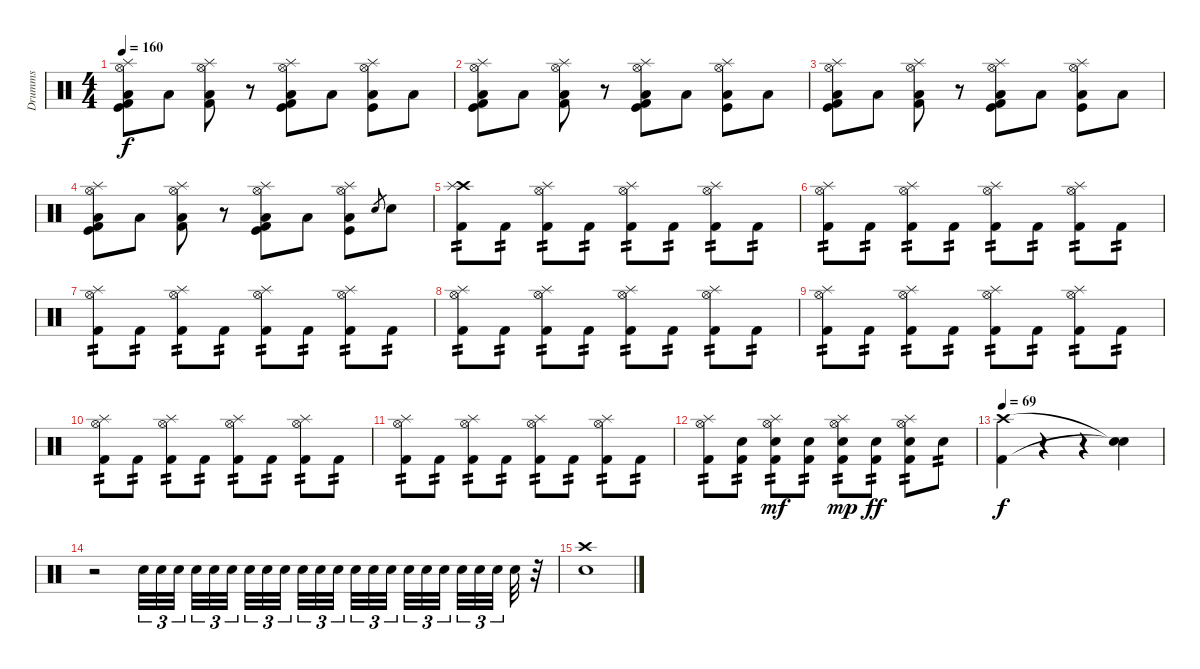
\track ("Drumms" "Drumms") {instrument percussion}
\staff {score}
\articulation defaults
\ts (4 4)
\tempo 160
\clef neutral
\ks c
("Hi-Hat (open)" "Splash (hit)" "Kick (hit) 2" "Low Floor Tom (hit)" "Kick (hit)").8{dy f} "Low Floor Tom (hit)".8 ("Hi-Hat (open)" "Splash (hit)" "Kick (hit) 2" "Low Floor Tom (hit)").8 r.8 ("Hi-Hat (open)" "Splash (hit)" "Kick (hit) 2" "Low Floor Tom (hit)" "Kick (hit)").8 "Low Floor Tom (hit)".8 ("Hi-Hat (open)" "Splash (hit)" "Low Floor Tom (hit)" "Kick (hit)").8 "Low Floor Tom (hit)".8 |
("Hi-Hat (open)" "Splash (hit)" "Kick (hit) 2" "Low Floor Tom (hit)" "Kick (hit)").8 "Low Floor Tom (hit)".8 ("Hi-Hat (open)" "Splash (hit)" "Kick (hit) 2" "Low Floor Tom (hit)").8 r.8 ("Hi-Hat (open)" "Splash (hit)" "Kick (hit) 2" "Low Floor Tom (hit)" "Kick (hit)").8 "Low Floor Tom (hit)".8 ("Hi-Hat (open)" "Splash (hit)" "Low Floor Tom (hit)" "Kick (hit)").8 "Low Floor Tom (hit)".8 |
("Hi-Hat (open)" "Splash (hit)" "Kick (hit) 2" "Low Floor Tom (hit)" "Kick (hit)").8 "Low Floor Tom (hit)".8 ("Hi-Hat (open)" "Splash (hit)" "Kick (hit) 2" "Low Floor Tom (hit)").8 r.8 ("Hi-Hat (open)" "Splash (hit)" "Kick (hit) 2" "Low Floor Tom (hit)" "Kick (hit)").8 "Low Floor Tom (hit)".8 ("Hi-Hat (open)" "Splash (hit)" "Low Floor Tom (hit)" "Kick (hit)").8 "Low Floor Tom (hit)".8 |
("Hi-Hat (open)" "Splash (hit)" "Kick (hit) 2" "Low Floor Tom (hit)" "Kick (hit)").8 "Low Floor Tom (hit)".8 ("Hi-Hat (open)" "Splash (hit)" "Kick (hit) 2" "Low Floor Tom (hit)").8 r.8 ("Hi-Hat (open)" "Splash (hit)" "Kick (hit) 2" "Low Floor Tom (hit)" "Kick (hit)").8 "Low Floor Tom (hit)".8 ("Hi-Hat (open)" "Splash (hit)" "Low Floor Tom (hit)" "Kick (hit)").8 "Snare (hit) 2".8{gr} "Snare (hit) 2".8 |
("Crash high (hit)" "Splash (hit)" "Kick (hit) 2").8{tp 2} "Kick (hit) 2".8{tp 2} ("Hi-Hat (open)" "Splash (hit)" "Kick (hit) 2").8{tp 2} "Kick (hit) 2".8{tp 2} ("Hi-Hat (open)" "Splash (hit)" "Kick (hit) 2").8{tp 2} "Kick (hit) 2".8{tp 2} ("Hi-Hat (open)" "Splash (hit)" "Kick (hit) 2").8{tp 2} "Kick (hit) 2".8{tp 2} |
("Hi-Hat (open)" "Splash (hit)" "Kick (hit) 2").8{tp 2} "Kick (hit) 2".8{tp 2} ("Hi-Hat (open)" "Splash (hit)" "Kick (hit) 2").8{tp 2} "Kick (hit) 2".8{tp 2} ("Hi-Hat (open)" "Splash (hit)" "Kick (hit) 2").8{tp 2} "Kick (hit) 2".8{tp 2} ("Hi-Hat (open)" "Splash (hit)" "Kick (hit) 2").8{tp 2} "Kick (hit) 2".8{tp 2} |
("Hi-Hat (open)" "Splash (hit)" "Kick (hit) 2").8{tp 2} "Kick (hit) 2".8{tp 2} ("Hi-Hat (open)" "Splash (hit)" "Kick (hit) 2").8{tp 2} "Kick (hit) 2".8{tp 2} ("Hi-Hat (open)" "Splash (hit)" "Kick (hit) 2").8{tp 2} "Kick (hit) 2".8{tp 2} ("Hi-Hat (open)" "Splash (hit)" "Kick (hit) 2").8{tp 2} "Kick (hit) 2".8{tp 2} |
("Hi-Hat (open)" "Splash (hit)" "Kick (hit) 2").8{tp 2} "Kick (hit) 2".8{tp 2} ("Hi-Hat (open)" "Splash (hit)" "Kick (hit) 2").8{tp 2} "Kick (hit) 2".8{tp 2} ("Hi-Hat (open)" "Splash (hit)" "Kick (hit) 2").8{tp 2} "Kick (hit) 2".8{tp 2} ("Hi-Hat (open)" "Splash (hit)" "Kick (hit) 2").8{tp 2} "Kick (hit) 2".8{tp 2} |
("Hi-Hat (open)" "Splash (hit)" "Kick (hit) 2").8{tp 2} "Kick (hit) 2".8{tp 2} ("Hi-Hat (open)" "Splash (hit)" "Kick (hit) 2").8{tp 2} "Kick (hit) 2".8{tp 2} ("Hi-Hat (open)" "Splash (hit)" "Kick (hit) 2").8{tp 2} "Kick (hit) 2".8{tp 2} ("Hi-Hat (open)" "Splash (hit)" "Kick (hit) 2").8{tp 2} "Kick (hit) 2".8{tp 2} |
("Hi-Hat (open)" "Splash (hit)" "Kick (hit) 2").8{tp 2} "Kick (hit) 2".8{tp 2} ("Hi-Hat (open)" "Splash (hit)" "Kick (hit) 2").8{tp 2} "Kick (hit) 2".8{tp 2} ("Hi-Hat (open)" "Splash (hit)" "Kick (hit) 2").8{tp 2} "Kick (hit) 2".8{tp 2} ("Hi-Hat (open)" "Splash (hit)" "Kick (hit) 2").8{tp 2} "Kick (hit) 2".8{tp 2} |
("Hi-Hat (open)" "Splash (hit)" "Kick (hit) 2").8{tp 2} "Kick (hit) 2".8{tp 2} ("Hi-Hat (open)" "Splash (hit)" "Kick (hit) 2").8{tp 2} "Kick (hit) 2".8{tp 2} ("Hi-Hat (open)" "Splash (hit)" "Kick (hit) 2").8{tp 2} "Kick (hit) 2".8{tp 2} ("Hi-Hat (open)" "Splash (hit)" "Kick (hit) 2").8{tp 2} "Kick (hit) 2".8{tp 2} |
("Hi-Hat (open)" "Splash (hit)" "Kick (hit) 2").8{tp 2} ("Kick (hit) 2" "Snare (hit) 2").8{tp 2} ("Hi-Hat (open)" "Splash (hit)" "Kick (hit) 2" "Snare (hit) 2").8{tp 2 dy mf} ("Kick (hit) 2" "Snare (hit) 2").8{tp 2} ("Hi-Hat (open)" "Splash (hit)" "Kick (hit) 2" "Snare (hit) 2").8{tp 2 dy mp} ("Kick (hit) 2" "Snare (hit) 2").8{tp 2 dy ff} ("Hi-Hat (open)" "Splash (hit)" "Kick (hit) 2" "Snare (hit) 2").8{tp 2} "Snare (hit) 2".8{tp 2} |
\tempo 69
("Crash high (hit)" "Kick (hit) 2").4{dy f} r.4 r.4 ("Snare (hit)"{t} "Snare (hit)"{t}).4 |
r.2 "Snare (hit) 2".32{tu (3 2)} "Snare (hit) 2".32{tu (3 2)} "Snare (hit) 2".32{tu (3 2)} "Snare (hit) 2".32{tu (3 2)} "Snare (hit) 2".32{tu (3 2)} "Snare (hit) 2".32{tu (3 2)} "Snare (hit) 2".32{tu (3 2)} "Snare (hit) 2".32{tu (3 2)} "Snare (hit) 2".32{tu (3 2)} "Snare (hit) 2".32{tu (3 2)} "Snare (hit) 2".32{tu (3 2)} "Snare (hit) 2".32{tu (3 2)} "Snare (hit) 2".32{tu (3 2)} "Snare (hit) 2".32{tu (3 2)} "Snare (hit) 2".32{tu (3 2)} "Snare (hit) 2".32{tu (3 2)} "Snare (hit) 2".32{tu (3 2)} "Snare (hit) 2".32{tu (3 2)} "Snare (hit) 2".32{tu (3 2)} "Snare (hit) 2".32{tu (3 2)} "Snare (hit) 2".32{tu (3 2)} "Snare (hit) 2".32 r.32 |
("Crash high (hit)" "Snare (hit) 2").1
